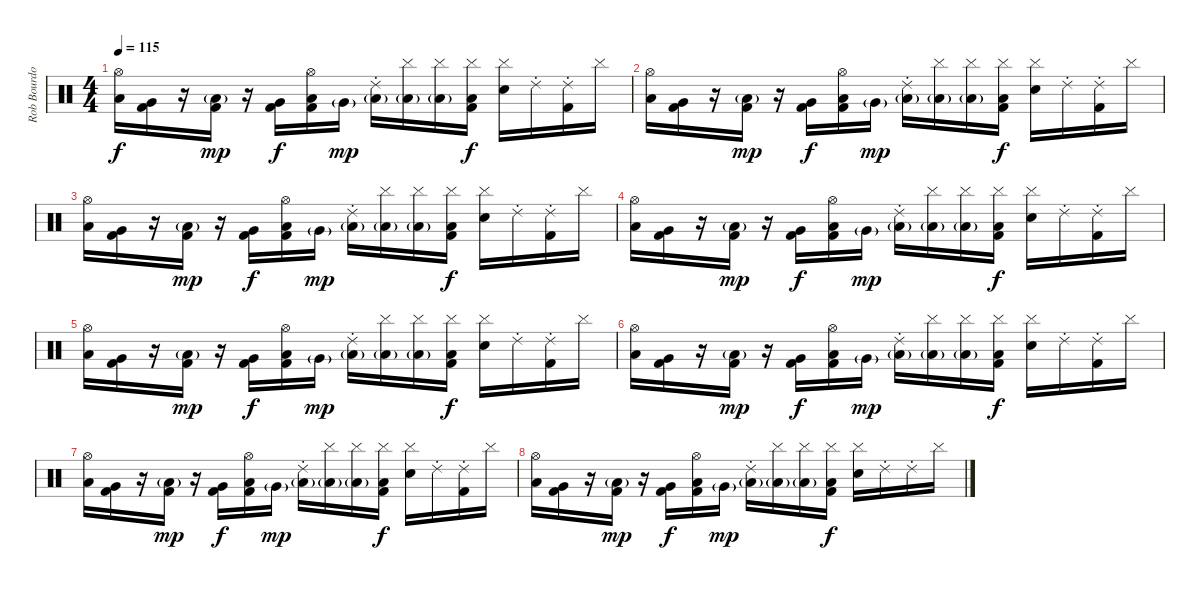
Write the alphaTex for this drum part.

\track ("Rob Bourdon (Drums)" "Rob Bourdo") {instrument percussion}
\staff {score}
\articulation defaults
\ts (4 4)
\tempo 115
\clef neutral
\ks c
("Hi-Hat (open)" "Low Tom (hit)").16{dy f} ("Very Low Tom (hit)" "Kick (hit) 2").16 r.16 ("Low Tom (hit)"{g} "Kick (hit) 2").16{dy mp} r.16 ("Very Low Tom (hit)" "Kick (hit) 2").16{dy f} ("Hi-Hat (open)" "Low Tom (hit)" "Kick (hit) 2").16 "Very Low Tom (hit)"{g}.16{dy mp} ("Ride (choke) 2" "Low Tom (hit)"{g}).16 ("Cymbal (hit)" "Low Tom (hit)"{g}).16 ("Cymbal (hit)" "Low Tom (hit)"{g}).16 ("Cymbal (hit)" "Low Tom (hit)" "Kick (hit) 2").16{dy f} ("Cymbal (hit)" "Electric Snare (hit)").16 "Ride (choke) 2".16 ("Ride (choke) 2" "Kick (hit) 2").16 "Cymbal (hit)".16 |
("Hi-Hat (open)" "Low Tom (hit)").16 ("Very Low Tom (hit)" "Kick (hit) 2").16 r.16 ("Low Tom (hit)"{g} "Kick (hit) 2").16{dy mp} r.16 ("Very Low Tom (hit)" "Kick (hit) 2").16{dy f} ("Hi-Hat (open)" "Low Tom (hit)" "Kick (hit) 2").16 "Very Low Tom (hit)"{g}.16{dy mp} ("Ride (choke) 2" "Low Tom (hit)"{g}).16 ("Cymbal (hit)" "Low Tom (hit)"{g}).16 ("Cymbal (hit)" "Low Tom (hit)"{g}).16 ("Cymbal (hit)" "Low Tom (hit)" "Kick (hit) 2").16{dy f} ("Cymbal (hit)" "Electric Snare (hit)").16 "Ride (choke) 2".16 ("Ride (choke) 2" "Kick (hit) 2").16 "Cymbal (hit)".16 |
("Hi-Hat (open)" "Low Tom (hit)").16 ("Very Low Tom (hit)" "Kick (hit) 2").16 r.16 ("Low Tom (hit)"{g} "Kick (hit) 2").16{dy mp} r.16 ("Very Low Tom (hit)" "Kick (hit) 2").16{dy f} ("Hi-Hat (open)" "Low Tom (hit)" "Kick (hit) 2").16 "Very Low Tom (hit)"{g}.16{dy mp} ("Ride (choke) 2" "Low Tom (hit)"{g}).16 ("Cymbal (hit)" "Low Tom (hit)"{g}).16 ("Cymbal (hit)" "Low Tom (hit)"{g}).16 ("Cymbal (hit)" "Low Tom (hit)" "Kick (hit) 2").16{dy f} ("Cymbal (hit)" "Electric Snare (hit)").16 "Ride (choke) 2".16 ("Ride (choke) 2" "Kick (hit) 2").16 "Cymbal (hit)".16 |
("Hi-Hat (open)" "Low Tom (hit)").16 ("Very Low Tom (hit)" "Kick (hit) 2").16 r.16 ("Low Tom (hit)"{g} "Kick (hit) 2").16{dy mp} r.16 ("Very Low Tom (hit)" "Kick (hit) 2").16{dy f} ("Hi-Hat (open)" "Low Tom (hit)" "Kick (hit) 2").16 "Very Low Tom (hit)"{g}.16{dy mp} ("Ride (choke) 2" "Low Tom (hit)"{g}).16 ("Cymbal (hit)" "Low Tom (hit)"{g}).16 ("Cymbal (hit)" "Low Tom (hit)"{g}).16 ("Cymbal (hit)" "Low Tom (hit)" "Kick (hit) 2").16{dy f} ("Cymbal (hit)" "Electric Snare (hit)").16 "Ride (choke) 2".16 ("Ride (choke) 2" "Kick (hit) 2").16 "Cymbal (hit)".16 |
("Hi-Hat (open)" "Low Tom (hit)").16 ("Very Low Tom (hit)" "Kick (hit) 2").16 r.16 ("Low Tom (hit)"{g} "Kick (hit) 2").16{dy mp} r.16 ("Very Low Tom (hit)" "Kick (hit) 2").16{dy f} ("Hi-Hat (open)" "Low Tom (hit)" "Kick (hit) 2").16 "Very Low Tom (hit)"{g}.16{dy mp} ("Ride (choke) 2" "Low Tom (hit)"{g}).16 ("Cymbal (hit)" "Low Tom (hit)"{g}).16 ("Cymbal (hit)" "Low Tom (hit)"{g}).16 ("Cymbal (hit)" "Low Tom (hit)" "Kick (hit) 2").16{dy f} ("Cymbal (hit)" "Electric Snare (hit)").16 "Ride (choke) 2".16 ("Ride (choke) 2" "Kick (hit) 2").16 "Cymbal (hit)".16 |
("Hi-Hat (open)" "Low Tom (hit)").16 ("Very Low Tom (hit)" "Kick (hit) 2").16 r.16 ("Low Tom (hit)"{g} "Kick (hit) 2").16{dy mp} r.16 ("Very Low Tom (hit)" "Kick (hit) 2").16{dy f} ("Hi-Hat (open)" "Low Tom (hit)" "Kick (hit) 2").16 "Very Low Tom (hit)"{g}.16{dy mp} ("Ride (choke) 2" "Low Tom (hit)"{g}).16 ("Cymbal (hit)" "Low Tom (hit)"{g}).16 ("Cymbal (hit)" "Low Tom (hit)"{g}).16 ("Cymbal (hit)" "Low Tom (hit)" "Kick (hit) 2").16{dy f} ("Cymbal (hit)" "Electric Snare (hit)").16 "Ride (choke) 2".16 ("Ride (choke) 2" "Kick (hit) 2").16 "Cymbal (hit)".16 |
("Hi-Hat (open)" "Low Tom (hit)").16 ("Very Low Tom (hit)" "Kick (hit) 2").16 r.16 ("Low Tom (hit)"{g} "Kick (hit) 2").16{dy mp} r.16 ("Very Low Tom (hit)" "Kick (hit) 2").16{dy f} ("Hi-Hat (open)" "Low Tom (hit)" "Kick (hit) 2").16 "Very Low Tom (hit)"{g}.16{dy mp} ("Ride (choke) 2" "Low Tom (hit)"{g}).16 ("Cymbal (hit)" "Low Tom (hit)"{g}).16 ("Cymbal (hit)" "Low Tom (hit)"{g}).16 ("Cymbal (hit)" "Low Tom (hit)" "Kick (hit) 2").16{dy f} ("Cymbal (hit)" "Electric Snare (hit)").16 "Ride (choke) 2".16 ("Ride (choke) 2" "Kick (hit) 2").16 "Cymbal (hit)".16 |
("Hi-Hat (open)" "Low Tom (hit)").16 ("Very Low Tom (hit)" "Kick (hit) 2").16 r.16 ("Low Tom (hit)"{g} "Kick (hit) 2").16{dy mp} r.16 ("Very Low Tom (hit)" "Kick (hit) 2").16{dy f} ("Hi-Hat (open)" "Low Tom (hit)" "Kick (hit) 2").16 "Very Low Tom (hit)"{g}.16{dy mp} ("Ride (choke) 2" "Low Tom (hit)"{g}).16 ("Cymbal (hit)" "Low Tom (hit)"{g}).16 ("Cymbal (hit)" "Low Tom (hit)"{g}).16 ("Cymbal (hit)" "Low Tom (hit)" "Kick (hit) 2").16{dy f} ("Cymbal (hit)" "Electric Snare (hit)").16 "Ride (choke) 2".16 "Ride (choke) 2".16 "Cymbal (hit)".16
